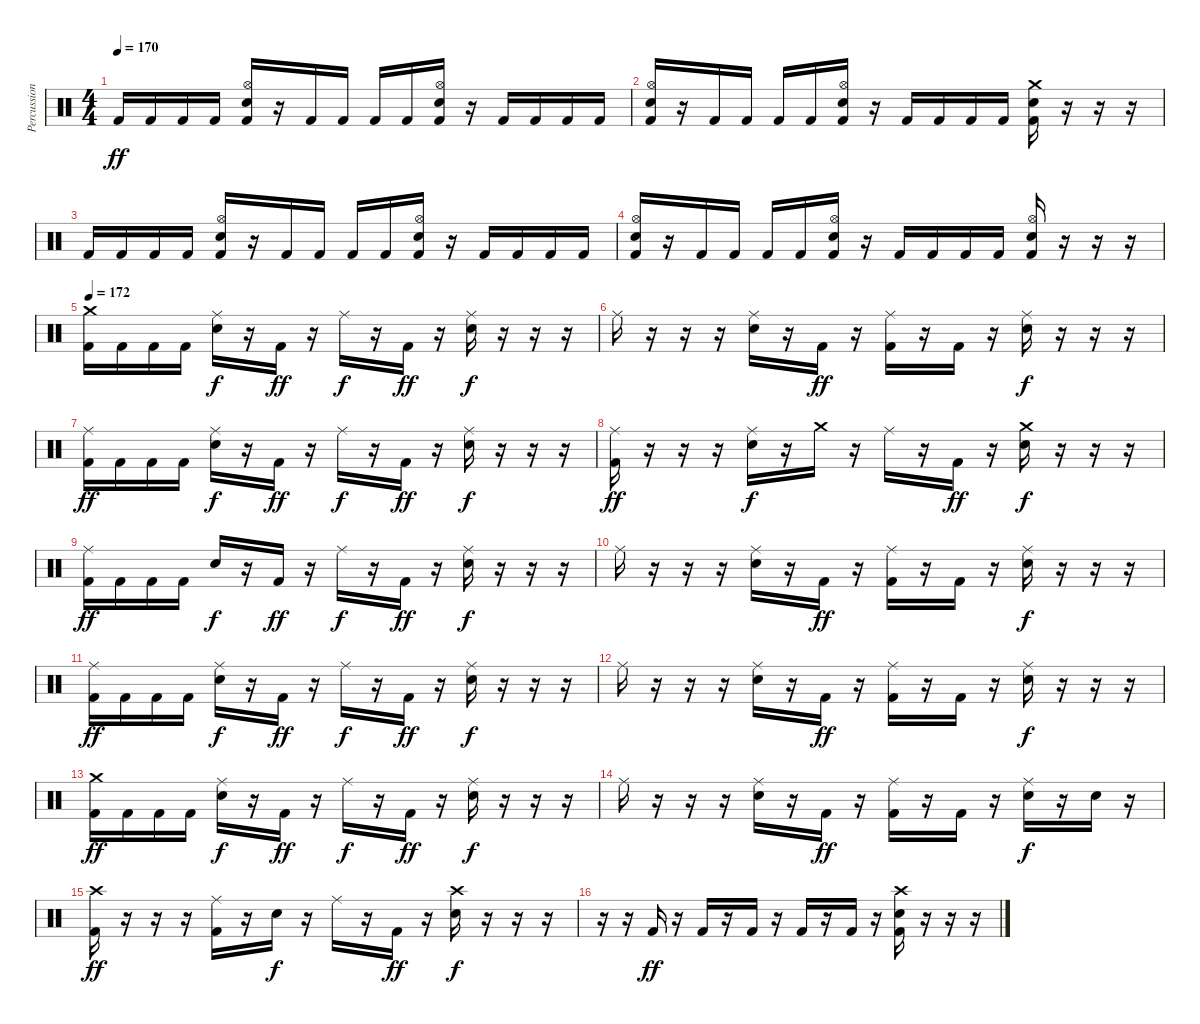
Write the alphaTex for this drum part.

\track ("Percussion" "Percussion") {instrument percussion}
\staff {score}
\articulation defaults
\ts (4 4)
\tempo 170
\clef neutral
\ks c "Kick (hit) 2".16{dy ff} "Kick (hit) 2".16 "Kick (hit) 2".16 "Kick (hit) 2".16
("Hi-Hat (open)" "Electric Snare (hit)" "Kick (hit) 2").16 r.16 "Kick (hit) 2".16 "Kick (hit) 2".16 "Kick (hit) 2".16 "Kick (hit) 2".16 ("Hi-Hat (open)" "Electric Snare (hit)" "Kick (hit) 2").16 r.16 "Kick (hit) 2".16 "Kick (hit) 2".16 "Kick (hit) 2".16 "Kick (hit) 2".16 |
("Hi-Hat (open)" "Electric Snare (hit)" "Kick (hit) 2").16 r.16 "Kick (hit) 2".16 "Kick (hit) 2".16 "Kick (hit) 2".16 "Kick (hit) 2".16 ("Hi-Hat (open)" "Electric Snare (hit)" "Kick (hit) 2").16 r.16 "Kick (hit) 2".16 "Kick (hit) 2".16 "Kick (hit) 2".16 "Kick (hit) 2".16 ("Crash medium (hit)" "Electric Snare (hit)" "Kick (hit) 2").16 r.16 r.16 r.16 |
"Kick (hit) 2".16 "Kick (hit) 2".16 "Kick (hit) 2".16 "Kick (hit) 2".16 ("Hi-Hat (open)" "Electric Snare (hit)" "Kick (hit) 2").16 r.16 "Kick (hit) 2".16 "Kick (hit) 2".16 "Kick (hit) 2".16 "Kick (hit) 2".16 ("Hi-Hat (open)" "Electric Snare (hit)" "Kick (hit) 2").16 r.16 "Kick (hit) 2".16 "Kick (hit) 2".16 "Kick (hit) 2".16 "Kick (hit) 2".16 |
("Hi-Hat (open)" "Electric Snare (hit)" "Kick (hit) 2").16 r.16 "Kick (hit) 2".16 "Kick (hit) 2".16 "Kick (hit) 2".16 "Kick (hit) 2".16 ("Hi-Hat (open)" "Electric Snare (hit)" "Kick (hit) 2").16 r.16 "Kick (hit) 2".16 "Kick (hit) 2".16 "Kick (hit) 2".16 "Kick (hit) 2".16 ("Hi-Hat (open)" "Electric Snare (hit)" "Kick (hit) 2").16 r.16 r.16 r.16 |
\tempo 172
("Crash medium (hit)" "Kick (hit) 2").16 "Kick (hit) 2".16 "Kick (hit) 2".16 "Kick (hit) 2".16 ("Ride (middle)" "Electric Snare (hit)").16{dy f} r.16 "Kick (hit) 2".16{dy ff} r.16 "Ride (middle)".16{dy f} r.16 "Kick (hit) 2".16{dy ff} r.16 ("Ride (middle)" "Electric Snare (hit)").16{dy f} r.16 r.16 r.16 |
"Ride (middle)".16 r.16 r.16 r.16 ("Ride (middle)" "Electric Snare (hit)").16 r.16 "Kick (hit) 2".16{dy ff} r.16 ("Ride (middle)" "Kick (hit) 2").16 r.16 "Kick (hit) 2".16 r.16 ("Ride (middle)" "Electric Snare (hit)").16{dy f} r.16 r.16 r.16 |
("Ride (middle)" "Kick (hit) 2").16{dy ff} "Kick (hit) 2".16 "Kick (hit) 2".16 "Kick (hit) 2".16 ("Ride (middle)" "Electric Snare (hit)").16{dy f} r.16 "Kick (hit) 2".16{dy ff} r.16 "Ride (middle)".16{dy f} r.16 "Kick (hit) 2".16{dy ff} r.16 ("Ride (middle)" "Electric Snare (hit)").16{dy f} r.16 r.16 r.16 |
("Ride (middle)" "Kick (hit) 2").16{dy ff} r.16 r.16 r.16 ("Ride (middle)" "Electric Snare (hit)").16{dy f} r.16 "Crash medium (hit)".16 r.16 "Ride (middle)".16 r.16 "Kick (hit) 2".16{dy ff} r.16 ("Crash medium (hit)" "Electric Snare (hit)").16{dy f} r.16 r.16 r.16 |
("Ride (middle)" "Kick (hit) 2").16{dy ff} "Kick (hit) 2".16 "Kick (hit) 2".16 "Kick (hit) 2".16 "Electric Snare (hit)".16{dy f} r.16 "Kick (hit) 2".16{dy ff} r.16 "Ride (middle)".16{dy f} r.16 "Kick (hit) 2".16{dy ff} r.16 ("Ride (middle)" "Electric Snare (hit)").16{dy f} r.16 r.16 r.16 |
"Ride (middle)".16 r.16 r.16 r.16 ("Ride (middle)" "Electric Snare (hit)").16 r.16 "Kick (hit) 2".16{dy ff} r.16 ("Ride (middle)" "Kick (hit) 2").16 r.16 "Kick (hit) 2".16 r.16 ("Ride (middle)" "Electric Snare (hit)").16{dy f} r.16 r.16 r.16 |
("Ride (middle)" "Kick (hit) 2").16{dy ff} "Kick (hit) 2".16 "Kick (hit) 2".16 "Kick (hit) 2".16 ("Ride (middle)" "Electric Snare (hit)").16{dy f} r.16 "Kick (hit) 2".16{dy ff} r.16 "Ride (middle)".16{dy f} r.16 "Kick (hit) 2".16{dy ff} r.16 ("Ride (middle)" "Electric Snare (hit)").16{dy f} r.16 r.16 r.16 |
"Ride (middle)".16 r.16 r.16 r.16 ("Ride (middle)" "Electric Snare (hit)").16 r.16 "Kick (hit) 2".16{dy ff} r.16 ("Ride (middle)" "Kick (hit) 2").16 r.16 "Kick (hit) 2".16 r.16 ("Ride (middle)" "Electric Snare (hit)").16{dy f} r.16 r.16 r.16 |
("Crash medium (hit)" "Kick (hit) 2").16{dy ff} "Kick (hit) 2".16 "Kick (hit) 2".16 "Kick (hit) 2".16 ("Ride (middle)" "Electric Snare (hit)").16{dy f} r.16 "Kick (hit) 2".16{dy ff} r.16 "Ride (middle)".16{dy f} r.16 "Kick (hit) 2".16{dy ff} r.16 ("Ride (middle)" "Electric Snare (hit)").16{dy f} r.16 r.16 r.16 |
"Ride (middle)".16 r.16 r.16 r.16 ("Ride (middle)" "Electric Snare (hit)").16 r.16 "Kick (hit) 2".16{dy ff} r.16 ("Ride (middle)" "Kick (hit) 2").16 r.16 "Kick (hit) 2".16 r.16 ("Ride (middle)" "Electric Snare (hit)").16{dy f} r.16 "Electric Snare (hit)".16 r.16 |
("Crash high (hit)" "Kick (hit) 2").16{dy ff} r.16 r.16 r.16 ("Ride (middle)" "Kick (hit) 2").16 r.16 "Electric Snare (hit)".16{dy f} r.16 "Ride (middle)".16 r.16 "Kick (hit) 2".16{dy ff} r.16 ("Crash high (hit)" "Electric Snare (hit)").16{dy f} r.16 r.16 r.16 |
r.16 r.16 "Kick (hit) 2".16{dy ff} r.16 "Kick (hit) 2".16 r.16 "Kick (hit) 2".16 r.16 "Kick (hit) 2".16 r.16 "Kick (hit) 2".16 r.16 ("Crash high (hit)" "Electric Snare (hit)" "Kick (hit) 2").16 r.16 r.16 r.16
